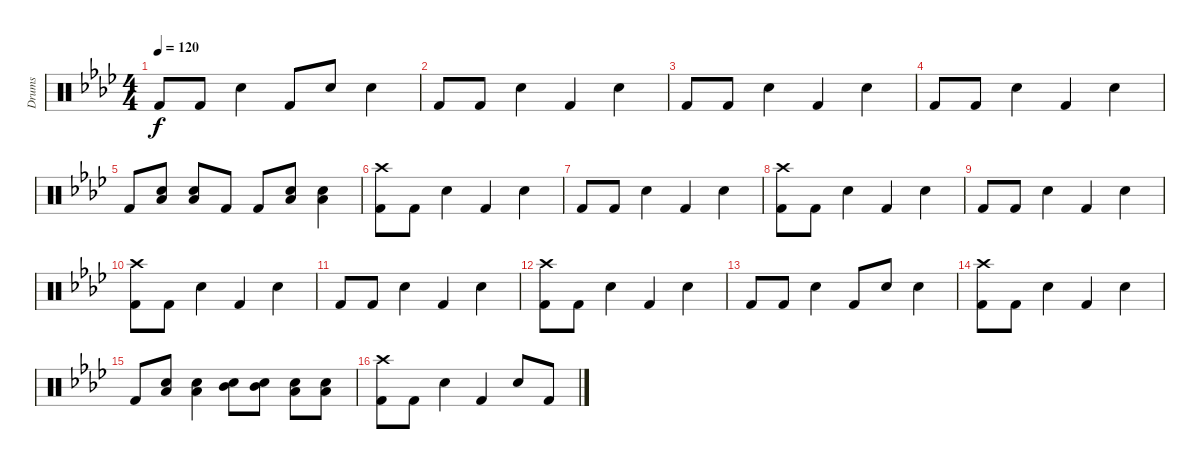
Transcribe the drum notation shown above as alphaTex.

\track ("Drums" "Drums") {instrument percussion}
\staff {score}
\articulation defaults
\ts (4 4)
\tempo 120
\clef neutral
\ks ab "Kick (hit) 2".8{dy f} "Kick (hit) 2".8 "Electric Snare (hit)".4 "Kick (hit) 2".8 "Electric Snare (hit)".8 "Electric Snare (hit)".4
|
"Kick (hit) 2".8 "Kick (hit) 2".8 "Electric Snare (hit)".4 "Kick (hit) 2".4 "Electric Snare (hit)".4 |
"Kick (hit) 2".8 "Kick (hit) 2".8 "Electric Snare (hit)".4 "Kick (hit) 2".4 "Electric Snare (hit)".4 |
"Kick (hit) 2".8 "Kick (hit) 2".8 "Electric Snare (hit)".4 "Kick (hit) 2".4 "Electric Snare (hit)".4 |
"Kick (hit) 2".8 ("Low Tom (hit)" "Electric Snare (hit)").8 ("Low Tom (hit)" "Electric Snare (hit)").8 "Kick (hit) 2".8 "Kick (hit) 2".8 ("Low Floor Tom (hit)" "Electric Snare (hit)").8 ("Low Floor Tom (hit)" "Electric Snare (hit)").4 |
("Crash high (hit)" "Kick (hit) 2").8 "Kick (hit) 2".8 "Electric Snare (hit)".4 "Kick (hit) 2".4 "Electric Snare (hit)".4 |
"Kick (hit) 2".8 "Kick (hit) 2".8 "Electric Snare (hit)".4 "Kick (hit) 2".4 "Electric Snare (hit)".4 |
("Crash high (hit)" "Kick (hit) 2").8 "Kick (hit) 2".8 "Electric Snare (hit)".4 "Kick (hit) 2".4 "Electric Snare (hit)".4 |
"Kick (hit) 2".8 "Kick (hit) 2".8 "Electric Snare (hit)".4 "Kick (hit) 2".4 "Electric Snare (hit)".4 |
("Crash high (hit)" "Kick (hit) 2").8 "Kick (hit) 2".8 "Electric Snare (hit)".4 "Kick (hit) 2".4 "Electric Snare (hit)".4 |
"Kick (hit) 2".8 "Kick (hit) 2".8 "Electric Snare (hit)".4 "Kick (hit) 2".4 "Electric Snare (hit)".4 |
("Crash high (hit)" "Kick (hit) 2").8 "Kick (hit) 2".8 "Electric Snare (hit)".4 "Kick (hit) 2".4 "Electric Snare (hit)".4 |
"Kick (hit) 2".8 "Kick (hit) 2".8 "Electric Snare (hit)".4 "Kick (hit) 2".8 "Electric Snare (hit)".8 "Electric Snare (hit)".4 |
("Crash high (hit)" "Kick (hit) 2").8 "Kick (hit) 2".8 "Electric Snare (hit)".4 "Kick (hit) 2".4 "Electric Snare (hit)".4 |
"Kick (hit) 2".8 ("Low Tom (hit)" "Electric Snare (hit)").8 ("Low Tom (hit)" "Electric Snare (hit)").4 ("Mid Tom (hit)" "Electric Snare (hit)").8 ("Mid Tom (hit)" "Electric Snare (hit)").8 ("Low Floor Tom (hit)" "Electric Snare (hit)").8 ("Low Floor Tom (hit)" "Electric Snare (hit)").8 |
("Crash high (hit)" "Kick (hit) 2").8 "Kick (hit) 2".8 "Electric Snare (hit)".4 "Kick (hit) 2".4 "Electric Snare (hit)".8 "Kick (hit) 2".8
